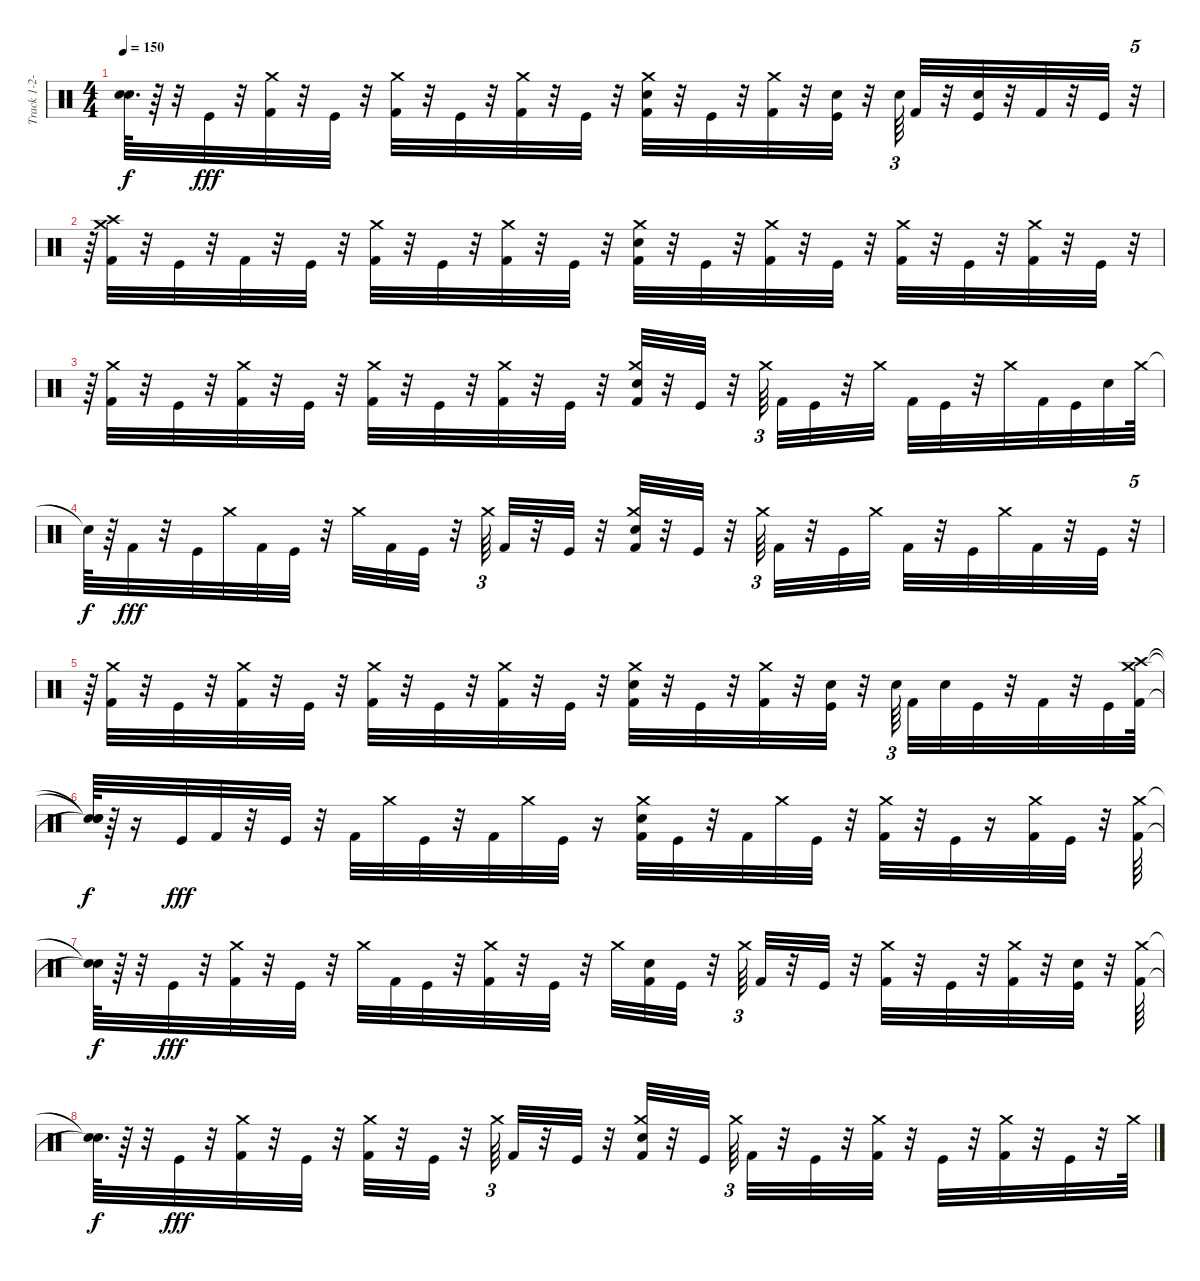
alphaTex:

\track ("Track 1-2-3-4-5-6-7-8-9-10-11-12-13-14-1" "Track 1-2-") {instrument percussion}
\staff {score}
\articulation defaults
\ts (4 4)
\tempo 150
\clef neutral
\ks c
("Snare (hit)"{t} "Snare (hit)"{t}).64{d dy f} r.64 r.32 "Kick (hit)".32{dy fff} r.32 ("Crash medium (hit)" "Kick (hit) 2").32 r.32 "Kick (hit)".32 r.32 ("Crash medium (hit)" "Kick (hit) 2").32 r.32 "Kick (hit)".32 r.32 ("Crash medium (hit)" "Kick (hit) 2").32 r.32 "Kick (hit)".32 r.32 ("Crash medium (hit)" "Snare (hit) 2" "Kick (hit) 2").32 r.32 "Kick (hit)".32 r.32 ("Crash medium (hit)" "Kick (hit) 2").32 r.32 ("Kick (hit)" "Snare (hit) 2").32 r.32 "Snare (hit) 2".64{tu (3 2)} "Kick (hit) 2".32 r.32 ("Snare (hit) 2" "Kick (hit)").32 r.32 "Kick (hit) 2".32 r.32 "Kick (hit)".32 r.32{tu (5 4)} |
r.64 ("Crash high (hit)" "Kick (hit) 2" "Crash medium (hit)").32 r.32 "Kick (hit)".32 r.32 "Kick (hit) 2".32 r.32 "Kick (hit)".32 r.32 ("Kick (hit) 2" "Crash medium (hit)").32 r.32 "Kick (hit)".32 r.32 ("Kick (hit) 2" "Crash medium (hit)").32 r.32 "Kick (hit)".32 r.32 ("Kick (hit) 2" "Snare (hit) 2" "Crash medium (hit)").32 r.32 "Kick (hit)".32 r.32 ("Kick (hit) 2" "Crash medium (hit)").32 r.32 "Kick (hit)".32 r.32 ("Kick (hit) 2" "Crash medium (hit)").32 r.32 "Kick (hit)".32 r.32 ("Kick (hit) 2" "Crash medium (hit)").32 r.32 "Kick (hit)".32 r.32{tu (5 4)} |
r.64 ("Crash medium (hit)" "Kick (hit) 2").32 r.32 "Kick (hit)".32 r.32 ("Crash medium (hit)" "Kick (hit) 2").32 r.32 "Kick (hit)".32 r.32 ("Crash medium (hit)" "Kick (hit) 2").32 r.32 "Kick (hit)".32 r.32 ("Crash medium (hit)" "Kick (hit) 2").32 r.32 "Kick (hit)".32 r.32 ("Crash medium (hit)" "Kick (hit) 2" "Snare (hit) 2").32 r.32 "Kick (hit)".32 r.32 "Crash medium (hit)".64{tu (3 2) beam splitsecondary} "Kick (hit) 2".32 "Kick (hit)".32 r.32 "Crash medium (hit)".32 "Kick (hit) 2".32 "Kick (hit)".32 r.32 "Crash medium (hit)".32 "Kick (hit) 2".32 "Kick (hit)".32 "Snare (hit)".32 "Crash medium (hit)".64 |
"Snare (hit)"{t}.64{dy f} r.64 "Kick (hit) 2".32{dy fff} r.32 "Kick (hit)".32 "Crash medium (hit)".32 "Kick (hit) 2".32 "Kick (hit)".32 r.32 "Crash medium (hit)".32 "Kick (hit) 2".32 "Kick (hit)".32 r.32 "Crash medium (hit)".64{tu (3 2)} "Kick (hit) 2".32 r.32 "Kick (hit)".32 r.32 ("Crash medium (hit)" "Snare (hit) 2" "Kick (hit) 2").32 r.32 "Kick (hit)".32 r.32 "Crash medium (hit)".64{tu (3 2)} "Kick (hit) 2".32 r.32 "Kick (hit)".32 "Crash medium (hit)".32 "Kick (hit) 2".32 r.32 "Kick (hit)".32 "Crash medium (hit)".32 "Kick (hit) 2".32 r.32 "Kick (hit)".32 r.32{tu (5 4)} |
r.64 ("Crash medium (hit)" "Kick (hit) 2").32 r.32 "Kick (hit)".32 r.32 ("Crash medium (hit)" "Kick (hit) 2").32 r.32 "Kick (hit)".32 r.32 ("Crash medium (hit)" "Kick (hit) 2").32 r.32 "Kick (hit)".32 r.32 ("Crash medium (hit)" "Kick (hit) 2").32 r.32 "Kick (hit)".32 r.32 ("Crash medium (hit)" "Snare (hit) 2" "Kick (hit) 2").32 r.32 "Kick (hit)".32 r.32 ("Crash medium (hit)" "Kick (hit) 2").32 r.32 ("Kick (hit)" "Snare (hit) 2").32 r.32 "Snare (hit) 2".64{tu (3 2) beam splitsecondary} "Kick (hit) 2".32 "Snare (hit) 2".32 "Kick (hit)".32 r.32 "Kick (hit) 2".32 r.32 "Kick (hit)".32 ("Crash high (hit)" "Kick (hit) 2" "Crash medium (hit)").64 |
("Snare (hit)"{t} "Snare (hit)"{t} "Snare (hit)"{t}).64{dy f} r.64 r.16 "Kick (hit)".32{dy fff} "Kick (hit) 2".32 r.32 "Kick (hit)".32 r.32 "Kick (hit) 2".32 "Crash medium (hit)".32 "Kick (hit)".32 r.32 "Kick (hit) 2".32 "Crash medium (hit)".32 "Kick (hit)".32 r.16 ("Kick (hit) 2" "Snare (hit) 2" "Crash medium (hit)").32 "Kick (hit)".32 r.32 "Kick (hit) 2".32 "Crash medium (hit)".32 "Kick (hit)".32 r.32 ("Kick (hit) 2" "Crash medium (hit)").32 r.32 "Kick (hit)".32 r.16 ("Kick (hit) 2" "Crash medium (hit)").32 "Kick (hit)".32 r.32 ("Crash medium (hit)" "Kick (hit) 2").64 |
("Snare (hit)"{t} "Snare (hit)"{t}).64{dy f} r.64 r.32 "Kick (hit)".32{dy fff} r.32 ("Crash medium (hit)" "Kick (hit) 2").32 r.32 "Kick (hit)".32 r.32 "Crash medium (hit)".32 "Kick (hit) 2".32 "Kick (hit)".32 r.32 ("Crash medium (hit)" "Kick (hit) 2").32 r.32 "Kick (hit)".32 r.32 "Crash medium (hit)".32 ("Kick (hit) 2" "Snare (hit) 2").32 "Kick (hit)".32 r.32 "Crash medium (hit)".64{tu (3 2)} "Kick (hit) 2".32 r.32 "Kick (hit)".32 r.32 ("Crash medium (hit)" "Kick (hit) 2").32 r.32 "Kick (hit)".32 r.32 ("Crash medium (hit)" "Kick (hit) 2").32 r.32 ("Kick (hit)" "Snare (hit)").32 r.32 ("Crash medium (hit)" "Kick (hit) 2").64 |
("Snare (hit)"{t} "Snare (hit)"{t}).64{d dy f} r.64 r.32 "Kick (hit)".32{dy fff} r.32 ("Crash medium (hit)" "Kick (hit) 2").32 r.32 "Kick (hit)".32 r.32 ("Crash medium (hit)" "Kick (hit) 2").32 r.32 "Kick (hit)".32 r.32 "Crash medium (hit)".64{tu (3 2)} "Kick (hit) 2".32 r.32 "Kick (hit)".32 r.32 ("Crash medium (hit)" "Snare (hit) 2" "Kick (hit) 2").32 r.32 "Kick (hit)".32{beam splitsecondary} "Crash medium (hit)".64{tu (3 2)} "Kick (hit) 2".32 r.32 "Kick (hit)".32 r.32 ("Crash medium (hit)" "Kick (hit) 2").32 r.32 "Kick (hit)".32 r.32 ("Crash medium (hit)" "Kick (hit) 2").32 r.32 "Kick (hit)".32 r.32 "Crash medium (hit)".64
